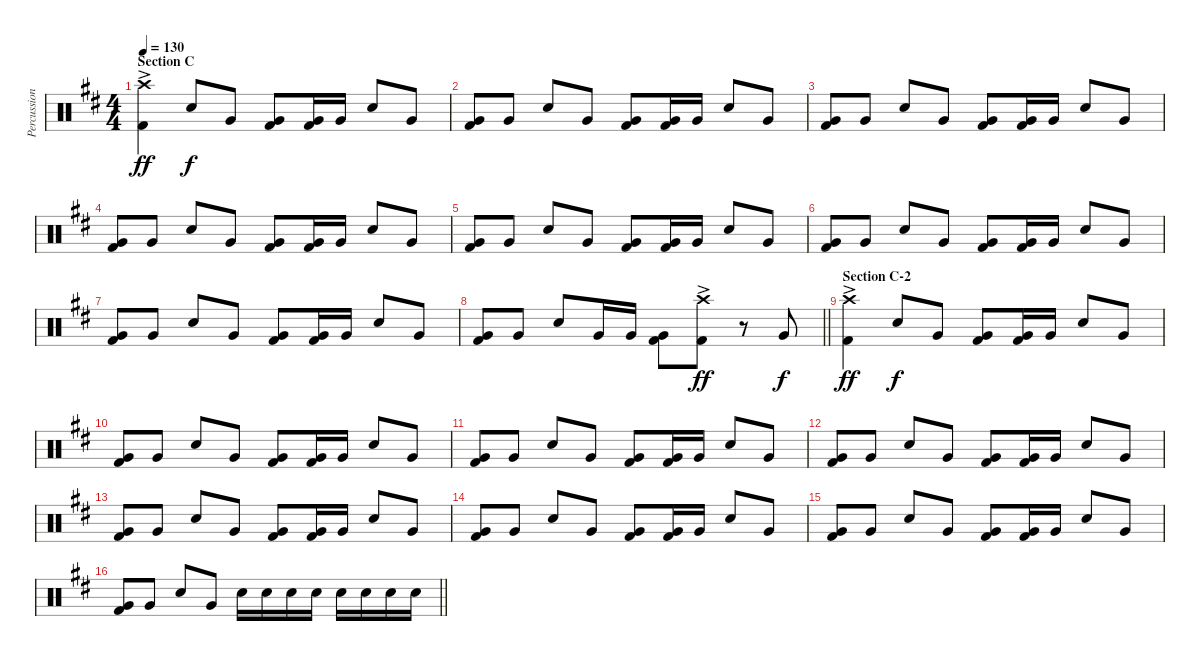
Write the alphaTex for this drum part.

\track ("Percussion" "Percussion") {instrument percussion}
\staff {score}
\articulation defaults
\ts (4 4)
\section ("" "Section C")
\tempo 130
\clef neutral
\ks d
("Crash high (hit)"{ac} "Kick (hit) 2").4{dy ff} "Snare (hit) 2".8{dy f} "Very Low Tom (hit)".8 ("Very Low Tom (hit)" "Kick (hit) 2").8 ("Very Low Tom (hit)" "Kick (hit) 2").16 "Very Low Tom (hit)".16 "Snare (hit) 2".8 "Very Low Tom (hit)".8 |
("Very Low Tom (hit)" "Kick (hit) 2").8 "Very Low Tom (hit)".8 "Snare (hit) 2".8 "Very Low Tom (hit)".8 ("Very Low Tom (hit)" "Kick (hit) 2").8 ("Very Low Tom (hit)" "Kick (hit) 2").16 "Very Low Tom (hit)".16 "Snare (hit) 2".8 "Very Low Tom (hit)".8 |
("Very Low Tom (hit)" "Kick (hit) 2").8 "Very Low Tom (hit)".8 "Snare (hit) 2".8 "Very Low Tom (hit)".8 ("Very Low Tom (hit)" "Kick (hit) 2").8 ("Very Low Tom (hit)" "Kick (hit) 2").16 "Very Low Tom (hit)".16 "Snare (hit) 2".8 "Very Low Tom (hit)".8 |
("Very Low Tom (hit)" "Kick (hit) 2").8 "Very Low Tom (hit)".8 "Snare (hit) 2".8 "Very Low Tom (hit)".8 ("Very Low Tom (hit)" "Kick (hit) 2").8 ("Very Low Tom (hit)" "Kick (hit) 2").16 "Very Low Tom (hit)".16 "Snare (hit) 2".8 "Very Low Tom (hit)".8 |
("Very Low Tom (hit)" "Kick (hit) 2").8 "Very Low Tom (hit)".8 "Snare (hit) 2".8 "Very Low Tom (hit)".8 ("Very Low Tom (hit)" "Kick (hit) 2").8 ("Very Low Tom (hit)" "Kick (hit) 2").16 "Very Low Tom (hit)".16 "Snare (hit) 2".8 "Very Low Tom (hit)".8 |
("Very Low Tom (hit)" "Kick (hit) 2").8 "Very Low Tom (hit)".8 "Snare (hit) 2".8 "Very Low Tom (hit)".8 ("Very Low Tom (hit)" "Kick (hit) 2").8 ("Very Low Tom (hit)" "Kick (hit) 2").16 "Very Low Tom (hit)".16 "Snare (hit) 2".8 "Very Low Tom (hit)".8 |
("Very Low Tom (hit)" "Kick (hit) 2").8 "Very Low Tom (hit)".8 "Snare (hit) 2".8 "Very Low Tom (hit)".8 ("Very Low Tom (hit)" "Kick (hit) 2").8 ("Very Low Tom (hit)" "Kick (hit) 2").16 "Very Low Tom (hit)".16 "Snare (hit) 2".8 "Very Low Tom (hit)".8 |
\barLineRight lightlight
("Very Low Tom (hit)" "Kick (hit) 2").8 "Very Low Tom (hit)".8 "Snare (hit) 2".8 "Very Low Tom (hit)".16 "Very Low Tom (hit)".16 ("Very Low Tom (hit)" "Kick (hit) 2").8 ("Crash high (hit)"{ac} "Kick (hit) 2").8{dy ff} r.8 "Very Low Tom (hit)".8{dy f} |
\section ("" "Section C-2")
("Crash high (hit)"{ac} "Kick (hit) 2").4{dy ff} "Snare (hit) 2".8{dy f} "Very Low Tom (hit)".8 ("Very Low Tom (hit)" "Kick (hit) 2").8 ("Very Low Tom (hit)" "Kick (hit) 2").16 "Very Low Tom (hit)".16 "Snare (hit) 2".8 "Very Low Tom (hit)".8 |
("Very Low Tom (hit)" "Kick (hit) 2").8 "Very Low Tom (hit)".8 "Snare (hit) 2".8 "Very Low Tom (hit)".8 ("Very Low Tom (hit)" "Kick (hit) 2").8 ("Very Low Tom (hit)" "Kick (hit) 2").16 "Very Low Tom (hit)".16 "Snare (hit) 2".8 "Very Low Tom (hit)".8 |
("Very Low Tom (hit)" "Kick (hit) 2").8 "Very Low Tom (hit)".8 "Snare (hit) 2".8 "Very Low Tom (hit)".8 ("Very Low Tom (hit)" "Kick (hit) 2").8 ("Very Low Tom (hit)" "Kick (hit) 2").16 "Very Low Tom (hit)".16 "Snare (hit) 2".8 "Very Low Tom (hit)".8 |
("Very Low Tom (hit)" "Kick (hit) 2").8 "Very Low Tom (hit)".8 "Snare (hit) 2".8 "Very Low Tom (hit)".8 ("Very Low Tom (hit)" "Kick (hit) 2").8 ("Very Low Tom (hit)" "Kick (hit) 2").16 "Very Low Tom (hit)".16 "Snare (hit) 2".8 "Very Low Tom (hit)".8 |
("Very Low Tom (hit)" "Kick (hit) 2").8 "Very Low Tom (hit)".8 "Snare (hit) 2".8 "Very Low Tom (hit)".8 ("Very Low Tom (hit)" "Kick (hit) 2").8 ("Very Low Tom (hit)" "Kick (hit) 2").16 "Very Low Tom (hit)".16 "Snare (hit) 2".8 "Very Low Tom (hit)".8 |
("Very Low Tom (hit)" "Kick (hit) 2").8 "Very Low Tom (hit)".8 "Snare (hit) 2".8 "Very Low Tom (hit)".8 ("Very Low Tom (hit)" "Kick (hit) 2").8 ("Very Low Tom (hit)" "Kick (hit) 2").16 "Very Low Tom (hit)".16 "Snare (hit) 2".8 "Very Low Tom (hit)".8 |
("Very Low Tom (hit)" "Kick (hit) 2").8 "Very Low Tom (hit)".8 "Snare (hit) 2".8 "Very Low Tom (hit)".8 ("Very Low Tom (hit)" "Kick (hit) 2").8 ("Very Low Tom (hit)" "Kick (hit) 2").16 "Very Low Tom (hit)".16 "Snare (hit) 2".8 "Very Low Tom (hit)".8 |
\barLineRight lightlight
("Very Low Tom (hit)" "Kick (hit) 2").8 "Very Low Tom (hit)".8 "Snare (hit) 2".8 "Very Low Tom (hit)".8 "Snare (hit) 2".16 "Snare (hit) 2".16 "Snare (hit) 2".16 "Snare (hit) 2".16 "Snare (hit) 2".16 "Snare (hit) 2".16 "Snare (hit) 2".16 "Snare (hit) 2".16
